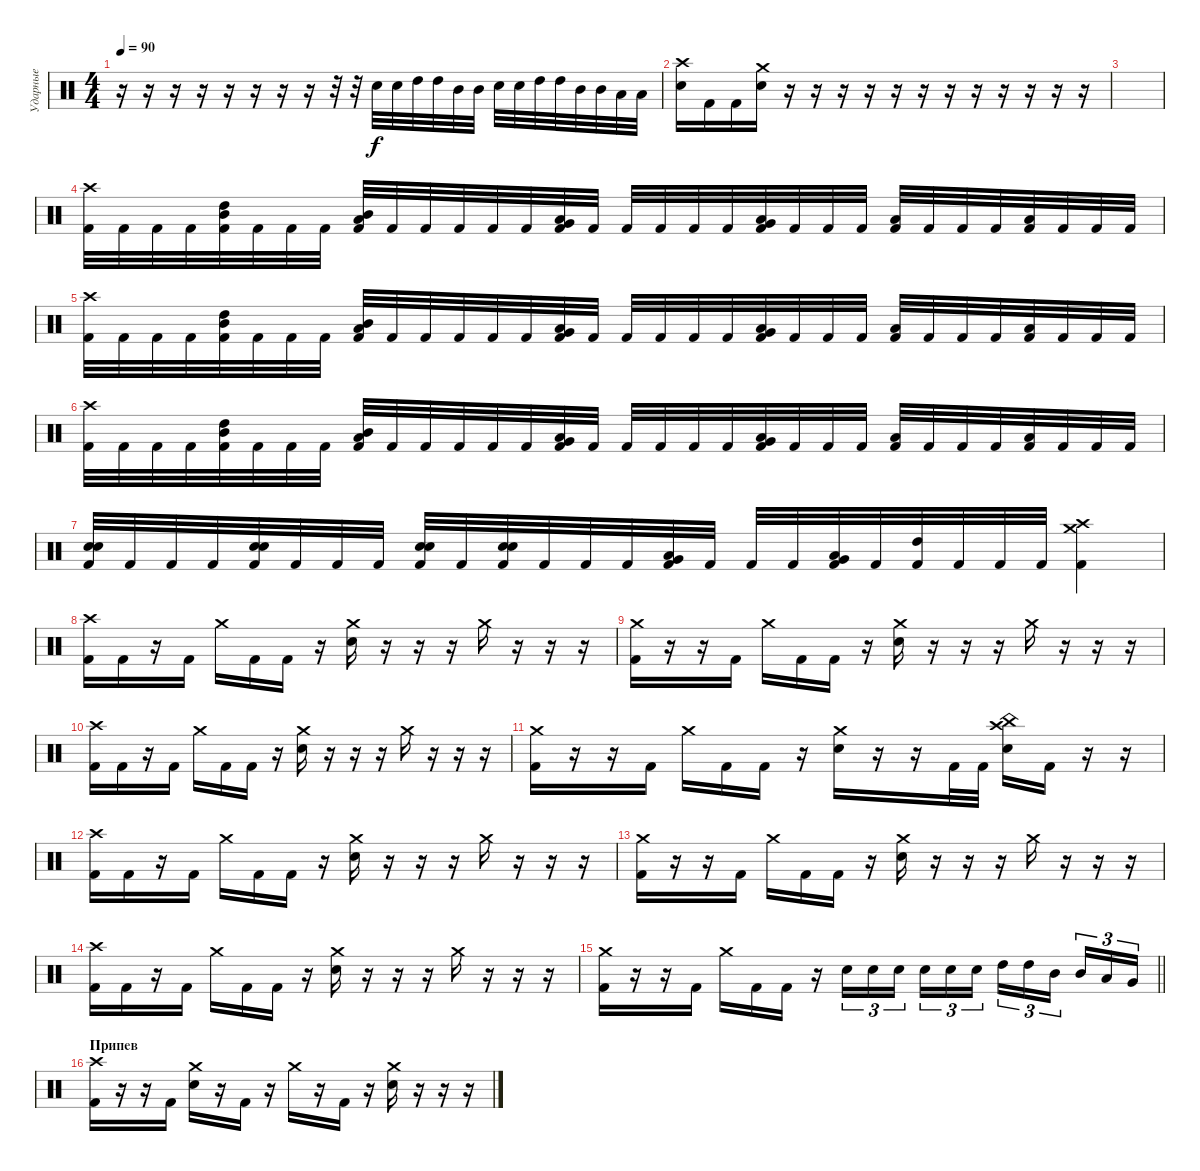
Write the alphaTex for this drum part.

\track ("Ударные" "Ударные") {instrument percussion}
\staff {score}
\articulation defaults
\ts (4 4)
\tempo 90
\clef neutral
\ks c
r.16{dy f} r.16 r.16 r.16 r.16 r.16 r.16 r.16 r.32 r.32 "Electric Snare (hit)".32 "Electric Snare (hit)".32 "High Tom (hit)".32 "High Tom (hit)".32 "Mid Tom (hit)".32 "Mid Tom (hit)".32 "Electric Snare (hit)".32 "Electric Snare (hit)".32 "High Tom (hit)".32 "High Tom (hit)".32 "Mid Tom (hit)".32 "Mid Tom (hit)".32 "Low Tom (hit)".32 "Low Tom (hit)".32 |
("Crash high (hit)" "Electric Snare (hit)").16 "Kick (hit) 2".16 "Kick (hit) 2".16 ("Crash medium (hit)" "Electric Snare (hit)").16 r.16 r.16 r.16 r.16 r.16 r.16 r.16 r.16 r.16 r.16 r.16 r.16 |
|
("Crash high (hit)" "Kick (hit) 2").32 "Kick (hit) 2".32 "Kick (hit) 2".32 "Kick (hit) 2".32 ("High Tom (hit)" "Mid Tom (hit)" "Kick (hit) 2").32 "Kick (hit) 2".32 "Kick (hit) 2".32 "Kick (hit) 2".32 ("Mid Tom (hit)" "Low Tom (hit)" "Kick (hit) 2").32 "Kick (hit) 2".32 "Kick (hit) 2".32 "Kick (hit) 2".32 "Kick (hit) 2".32 "Kick (hit) 2".32 ("Very Low Tom (hit)" "Low Tom (hit)" "Kick (hit) 2").32 "Kick (hit) 2".32 "Kick (hit) 2".32 "Kick (hit) 2".32 "Kick (hit) 2".32 "Kick (hit) 2".32 ("Low Floor Tom (hit)" "Very Low Tom (hit)" "Kick (hit) 2").32 "Kick (hit) 2".32 "Kick (hit) 2".32 "Kick (hit) 2".32 ("Low Floor Tom (hit)" "Kick (hit) 2").32 "Kick (hit) 2".32 "Kick (hit) 2".32 "Kick (hit) 2".32 ("Low Floor Tom (hit)" "Kick (hit) 2").32 "Kick (hit) 2".32 "Kick (hit) 2".32 "Kick (hit) 2".32 |
("Crash high (hit)" "Kick (hit) 2").32 "Kick (hit) 2".32 "Kick (hit) 2".32 "Kick (hit) 2".32 ("High Tom (hit)" "Mid Tom (hit)" "Kick (hit) 2").32 "Kick (hit) 2".32 "Kick (hit) 2".32 "Kick (hit) 2".32 ("Mid Tom (hit)" "Low Tom (hit)" "Kick (hit) 2").32 "Kick (hit) 2".32 "Kick (hit) 2".32 "Kick (hit) 2".32 "Kick (hit) 2".32 "Kick (hit) 2".32 ("Very Low Tom (hit)" "Low Tom (hit)" "Kick (hit) 2").32 "Kick (hit) 2".32 "Kick (hit) 2".32 "Kick (hit) 2".32 "Kick (hit) 2".32 "Kick (hit) 2".32 ("Low Floor Tom (hit)" "Very Low Tom (hit)" "Kick (hit) 2").32 "Kick (hit) 2".32 "Kick (hit) 2".32 "Kick (hit) 2".32 ("Low Floor Tom (hit)" "Kick (hit) 2").32 "Kick (hit) 2".32 "Kick (hit) 2".32 "Kick (hit) 2".32 ("Low Floor Tom (hit)" "Kick (hit) 2").32 "Kick (hit) 2".32 "Kick (hit) 2".32 "Kick (hit) 2".32 |
("Crash high (hit)" "Kick (hit) 2").32 "Kick (hit) 2".32 "Kick (hit) 2".32 "Kick (hit) 2".32 ("High Tom (hit)" "Mid Tom (hit)" "Kick (hit) 2").32 "Kick (hit) 2".32 "Kick (hit) 2".32 "Kick (hit) 2".32 ("Mid Tom (hit)" "Low Tom (hit)" "Kick (hit) 2").32 "Kick (hit) 2".32 "Kick (hit) 2".32 "Kick (hit) 2".32 "Kick (hit) 2".32 "Kick (hit) 2".32 ("Very Low Tom (hit)" "Low Tom (hit)" "Kick (hit) 2").32 "Kick (hit) 2".32 "Kick (hit) 2".32 "Kick (hit) 2".32 "Kick (hit) 2".32 "Kick (hit) 2".32 ("Low Floor Tom (hit)" "Very Low Tom (hit)" "Kick (hit) 2").32 "Kick (hit) 2".32 "Kick (hit) 2".32 "Kick (hit) 2".32 ("Low Floor Tom (hit)" "Kick (hit) 2").32 "Kick (hit) 2".32 "Kick (hit) 2".32 "Kick (hit) 2".32 ("Low Floor Tom (hit)" "Kick (hit) 2").32 "Kick (hit) 2".32 "Kick (hit) 2".32 "Kick (hit) 2".32 |
("Snare (hit) 2" "Electric Snare (hit)" "Kick (hit) 2").32 "Kick (hit) 2".32 "Kick (hit) 2".32 "Kick (hit) 2".32 ("Snare (hit) 2" "Electric Snare (hit)" "Kick (hit) 2").32 "Kick (hit) 2".32 "Kick (hit) 2".32 "Kick (hit) 2".32 ("Snare (hit) 2" "Electric Snare (hit)" "Kick (hit) 2").32 "Kick (hit) 2".32 ("Snare (hit) 2" "Electric Snare (hit)" "Kick (hit) 2").32 "Kick (hit) 2".32 "Kick (hit) 2".32 "Kick (hit) 2".32 ("Very Low Tom (hit)" "Low Tom (hit)" "Kick (hit) 2").32 "Kick (hit) 2".32 "Kick (hit) 2".32 "Kick (hit) 2".32 ("Very Low Tom (hit)" "Low Floor Tom (hit)" "Kick (hit) 2").32 "Kick (hit) 2".32 ("High Tom (hit)" "Kick (hit) 2").32 "Kick (hit) 2".32 "Kick (hit) 2".32 "Kick (hit) 2".32 ("Crash high (hit)" "Crash medium (hit)" "Kick (hit) 2").4 |
("Crash high (hit)" "Kick (hit) 2").16 "Kick (hit) 2".16 r.16 "Kick (hit) 2".16 "Crash medium (hit)".16 "Kick (hit) 2".16 "Kick (hit) 2".16 r.16 ("Crash medium (hit)" "Electric Snare (hit)").16 r.16 r.16 r.16 "Crash medium (hit)".16 r.16 r.16 r.16 |
("Crash medium (hit)" "Kick (hit) 2").16 r.16 r.16 "Kick (hit) 2".16 "Crash medium (hit)".16 "Kick (hit) 2".16 "Kick (hit) 2".16 r.16 ("Crash medium (hit)" "Electric Snare (hit)").16 r.16 r.16 r.16 "Crash medium (hit)".16 r.16 r.16 r.16 |
("Crash high (hit)" "Kick (hit) 2").16 "Kick (hit) 2".16 r.16 "Kick (hit) 2".16 "Crash medium (hit)".16 "Kick (hit) 2".16 "Kick (hit) 2".16 r.16 ("Crash medium (hit)" "Electric Snare (hit)").16 r.16 r.16 r.16 "Crash medium (hit)".16 r.16 r.16 r.16 |
("Crash medium (hit)" "Kick (hit) 2").16 r.16 r.16 "Kick (hit) 2".16 "Crash medium (hit)".16 "Kick (hit) 2".16 "Kick (hit) 2".16 r.16 ("Crash medium (hit)" "Electric Snare (hit)").16 r.16 r.16 "Kick (hit) 2".32 "Kick (hit) 2".32 ("China (hit)" "Crash high (hit)" "Electric Snare (hit)").16 "Kick (hit) 2".16 r.16 r.16 |
("Crash high (hit)" "Kick (hit) 2").16 "Kick (hit) 2".16 r.16 "Kick (hit) 2".16 "Crash medium (hit)".16 "Kick (hit) 2".16 "Kick (hit) 2".16 r.16 ("Crash medium (hit)" "Electric Snare (hit)").16 r.16 r.16 r.16 "Crash medium (hit)".16 r.16 r.16 r.16 |
("Crash medium (hit)" "Kick (hit) 2").16 r.16 r.16 "Kick (hit) 2".16 "Crash medium (hit)".16 "Kick (hit) 2".16 "Kick (hit) 2".16 r.16 ("Crash medium (hit)" "Electric Snare (hit)").16 r.16 r.16 r.16 "Crash medium (hit)".16 r.16 r.16 r.16 |
("Crash high (hit)" "Kick (hit) 2").16 "Kick (hit) 2".16 r.16 "Kick (hit) 2".16 "Crash medium (hit)".16 "Kick (hit) 2".16 "Kick (hit) 2".16 r.16 ("Crash medium (hit)" "Electric Snare (hit)").16 r.16 r.16 r.16 "Crash medium (hit)".16 r.16 r.16 r.16 |
\barLineRight lightlight
("Crash medium (hit)" "Kick (hit) 2").16 r.16 r.16 "Kick (hit) 2".16 "Crash medium (hit)".16 "Kick (hit) 2".16 "Kick (hit) 2".16 r.16 "Electric Snare (hit)".16{tu (3 2)} "Electric Snare (hit)".16{tu (3 2)} "Electric Snare (hit)".16{tu (3 2) beam splitsecondary} "Electric Snare (hit)".16{tu (3 2)} "Electric Snare (hit)".16{tu (3 2)} "Electric Snare (hit)".16{tu (3 2)} "High Tom (hit)".16{tu (3 2)} "High Tom (hit)".16{tu (3 2)} "Mid Tom (hit)".16{tu (3 2) beam splitsecondary} "Mid Tom (hit)".16{tu (3 2)} "Low Tom (hit)".16{tu (3 2)} "Very Low Tom (hit)".16{tu (3 2)} |
\section ("" "Припев")
("Crash high (hit)" "Kick (hit) 2").16 r.16 r.16 "Kick (hit) 2".16 ("Crash medium (hit)" "Electric Snare (hit)").16 r.16 "Kick (hit) 2".16 r.16 "Crash medium (hit)".16 r.16 "Kick (hit) 2".16 r.16 ("Crash medium (hit)" "Electric Snare (hit)").16 r.16 r.16 r.16
